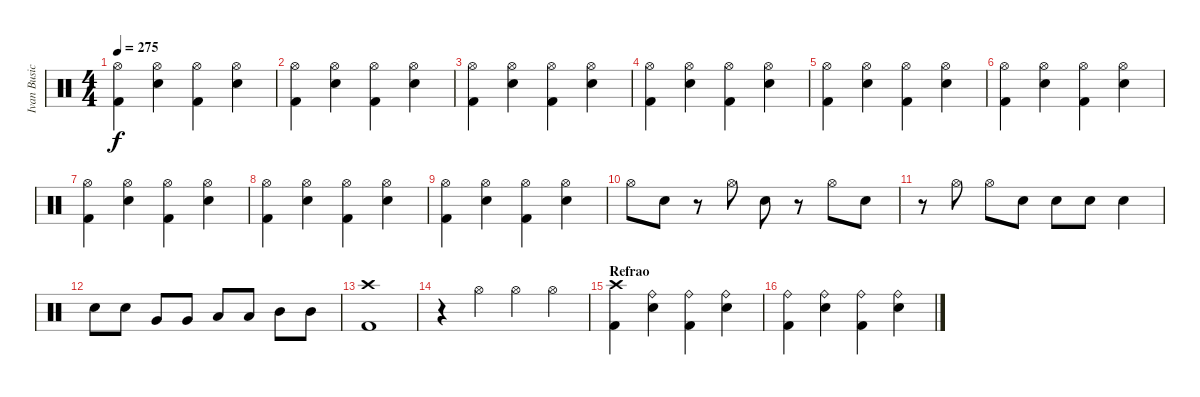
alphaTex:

\track ("Ivan Busic" "Ivan Busic") {instrument percussion}
\staff {score}
\articulation defaults
\ts (4 4)
\tempo 275
\clef neutral
\ks c
("Hi-Hat (open)" "Kick (hit) 2").4{dy f} ("Hi-Hat (open)" "Electric Snare (hit)").4 ("Hi-Hat (open)" "Kick (hit) 2").4 ("Hi-Hat (open)" "Electric Snare (hit)").4 |
("Hi-Hat (open)" "Kick (hit) 2").4 ("Hi-Hat (open)" "Electric Snare (hit)").4 ("Hi-Hat (open)" "Kick (hit) 2").4 ("Hi-Hat (open)" "Electric Snare (hit)").4 |
("Hi-Hat (open)" "Kick (hit) 2").4 ("Hi-Hat (open)" "Electric Snare (hit)").4 ("Hi-Hat (open)" "Kick (hit) 2").4 ("Hi-Hat (open)" "Electric Snare (hit)").4 |
("Hi-Hat (open)" "Kick (hit) 2").4 ("Hi-Hat (open)" "Electric Snare (hit)").4 ("Hi-Hat (open)" "Kick (hit) 2").4 ("Hi-Hat (open)" "Electric Snare (hit)").4 |
("Hi-Hat (open)" "Kick (hit) 2").4 ("Hi-Hat (open)" "Electric Snare (hit)").4 ("Hi-Hat (open)" "Kick (hit) 2").4 ("Hi-Hat (open)" "Electric Snare (hit)").4 |
("Hi-Hat (open)" "Kick (hit) 2").4 ("Hi-Hat (open)" "Electric Snare (hit)").4 ("Hi-Hat (open)" "Kick (hit) 2").4 ("Hi-Hat (open)" "Electric Snare (hit)").4 |
("Hi-Hat (open)" "Kick (hit) 2").4 ("Hi-Hat (open)" "Electric Snare (hit)").4 ("Hi-Hat (open)" "Kick (hit) 2").4 ("Hi-Hat (open)" "Electric Snare (hit)").4 |
("Hi-Hat (open)" "Kick (hit) 2").4 ("Hi-Hat (open)" "Electric Snare (hit)").4 ("Hi-Hat (open)" "Kick (hit) 2").4 ("Hi-Hat (open)" "Electric Snare (hit)").4 |
("Hi-Hat (open)" "Kick (hit) 2").4 ("Hi-Hat (open)" "Electric Snare (hit)").4 ("Hi-Hat (open)" "Kick (hit) 2").4 ("Hi-Hat (open)" "Electric Snare (hit)").4 |
"Hi-Hat (open)".8 "Electric Snare (hit)".8 r.8 "Hi-Hat (open)".8 "Electric Snare (hit)".8 r.8 "Hi-Hat (open)".8 "Electric Snare (hit)".8 |
r.8 "Hi-Hat (open)".8 "Hi-Hat (open)".8 "Electric Snare (hit)".8 "Electric Snare (hit)".8 "Electric Snare (hit)".8 "Electric Snare (hit)".4 |
"Electric Snare (hit)".8 "Electric Snare (hit)".8 "Very Low Tom (hit)".8 "Very Low Tom (hit)".8 "Low Tom (hit)".8 "Low Tom (hit)".8 "Mid Tom (hit)".8 "Mid Tom (hit)".8 |
("Crash high (hit)" "Kick (hit) 2").1 |
r.4 "Hi-Hat (open)".4 "Hi-Hat (open)".4 "Hi-Hat (open)".4 |
\section ("" "Refrao")
("Crash high (hit)" "Kick (hit) 2").4 ("Ride (bell)" "Electric Snare (hit)").4 ("Ride (bell)" "Kick (hit) 2").4 ("Ride (bell)" "Electric Snare (hit)").4 |
("Ride (bell)" "Kick (hit) 2").4 ("Ride (bell)" "Electric Snare (hit)").4 ("Ride (bell)" "Kick (hit) 2").4 ("Ride (bell)" "Electric Snare (hit)").4
